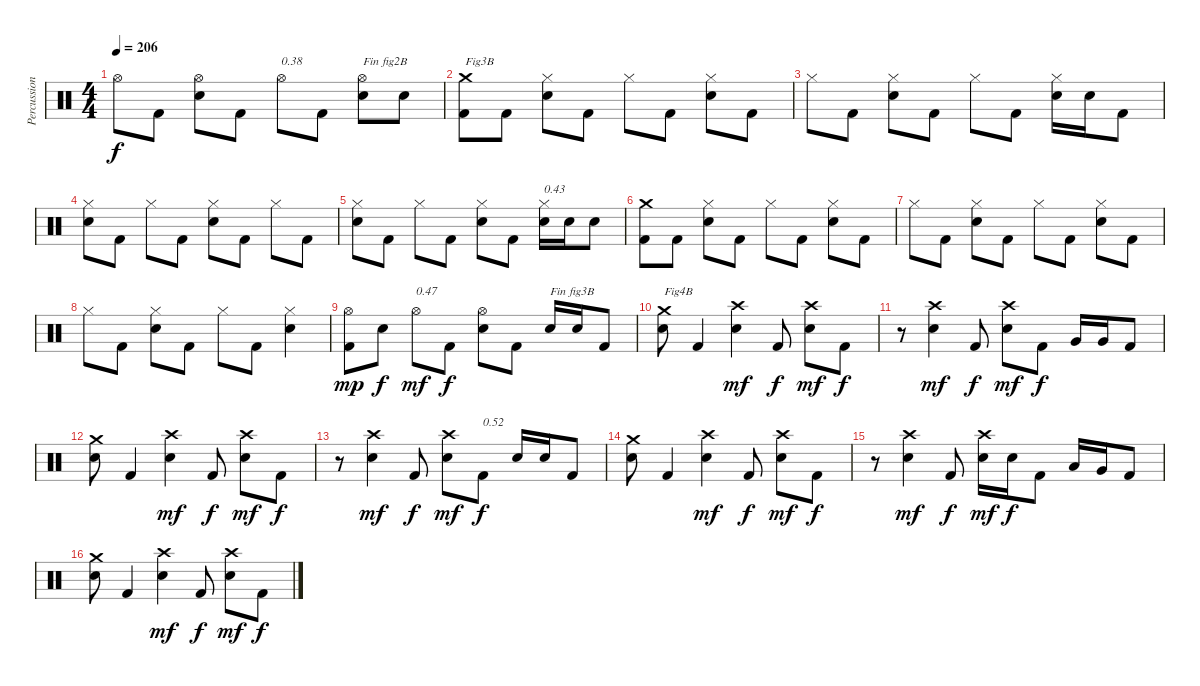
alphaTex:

\track ("Percussions" "Percussion") {instrument percussion}
\staff {score}
\articulation defaults
\ts (4 4)
\tempo 206
\clef neutral
\ks c "Hi-Hat (open)".8{dy f} "Kick (hit) 2".8
("Electric Snare (hit)" "Hi-Hat (open)").8 "Kick (hit) 2".8 "Hi-Hat (open)".8{txt "0.38"} "Kick (hit) 2".8 ("Electric Snare (hit)" "Hi-Hat (open)").8{txt "Fin fig2B"} "Electric Snare (hit)".8 |
("Kick (hit) 2" "Crash medium (hit)").8{txt "Fig3B"} "Kick (hit) 2".8 ("Electric Snare (hit)" "Hi-Hat (closed)").8 "Kick (hit) 2".8 "Hi-Hat (closed)".8 "Kick (hit) 2".8 ("Electric Snare (hit)" "Hi-Hat (closed)").8 "Kick (hit) 2".8 |
"Hi-Hat (closed)".8 "Kick (hit) 2".8 ("Electric Snare (hit)" "Hi-Hat (closed)").8 "Kick (hit) 2".8 "Hi-Hat (closed)".8 "Kick (hit) 2".8 ("Electric Snare (hit)" "Hi-Hat (closed)").16 "Electric Snare (hit)".16 "Kick (hit) 2".8 |
("Electric Snare (hit)" "Hi-Hat (closed)").8 "Kick (hit) 2".8 "Hi-Hat (closed)".8 "Kick (hit) 2".8 ("Electric Snare (hit)" "Hi-Hat (closed)").8 "Kick (hit) 2".8 "Hi-Hat (closed)".8 "Kick (hit) 2".8 |
("Electric Snare (hit)" "Hi-Hat (closed)").8 "Kick (hit) 2".8 "Hi-Hat (closed)".8 "Kick (hit) 2".8 ("Electric Snare (hit)" "Hi-Hat (closed)").8 "Kick (hit) 2".8 ("Electric Snare (hit)" "Hi-Hat (closed)").16{txt "0.43"} "Electric Snare (hit)".16 "Electric Snare (hit)".8 |
("Kick (hit) 2" "Crash medium (hit)").8 "Kick (hit) 2".8 ("Electric Snare (hit)" "Hi-Hat (closed)").8 "Kick (hit) 2".8 "Hi-Hat (closed)".8 "Kick (hit) 2".8 ("Electric Snare (hit)" "Hi-Hat (closed)").8 "Kick (hit) 2".8 |
"Hi-Hat (closed)".8 "Kick (hit) 2".8 ("Electric Snare (hit)" "Hi-Hat (closed)").8 "Kick (hit) 2".8 "Hi-Hat (closed)".8 "Kick (hit) 2".8 ("Electric Snare (hit)" "Hi-Hat (closed)").8 "Kick (hit) 2".8 |
"Hi-Hat (closed)".8 "Kick (hit) 2".8 ("Electric Snare (hit)" "Hi-Hat (closed)").8 "Kick (hit) 2".8 "Hi-Hat (closed)".8 "Kick (hit) 2".8 ("Electric Snare (hit)" "Hi-Hat (closed)").4 |
("Kick (hit) 2" "Hi-Hat (open)").8{dy mp} "Electric Snare (hit)".8{dy f} "Hi-Hat (open)".8{txt "0.47" dy mf} "Kick (hit) 2".8{dy f} ("Electric Snare (hit)" "Hi-Hat (open)").8 "Kick (hit) 2".8 "Electric Snare (hit)".16{txt "Fin fig3B"} "Electric Snare (hit)".16 "Kick (hit) 2".8 |
("Electric Snare (hit)" "Crash medium (hit)").8{txt "Fig4B"} "Kick (hit) 2".4 ("Electric Snare (hit)" "Crash high (hit)").4{dy mf} "Kick (hit) 2".8{dy f} ("Electric Snare (hit)" "Crash high (hit)").8{dy mf} "Kick (hit) 2".8{dy f} |
r.8 ("Electric Snare (hit)" "Crash high (hit)").4{dy mf} "Kick (hit) 2".8{dy f} ("Electric Snare (hit)" "Crash high (hit)").8{dy mf} "Kick (hit) 2".8{dy f} "Very Low Tom (hit)".16 "Very Low Tom (hit)".16 "Kick (hit) 2".8 |
("Electric Snare (hit)" "Crash medium (hit)").8 "Kick (hit) 2".4 ("Electric Snare (hit)" "Crash high (hit)").4{dy mf} "Kick (hit) 2".8{dy f} ("Electric Snare (hit)" "Crash high (hit)").8{dy mf} "Kick (hit) 2".8{dy f} |
r.8 ("Electric Snare (hit)" "Crash high (hit)").4{dy mf} "Kick (hit) 2".8{dy f} ("Electric Snare (hit)" "Crash high (hit)").8{dy mf} "Kick (hit) 2".8{txt "0.52" dy f} "Electric Snare (hit)".16 "Electric Snare (hit)".16 "Kick (hit) 2".8 |
("Electric Snare (hit)" "Crash medium (hit)").8 "Kick (hit) 2".4 ("Electric Snare (hit)" "Crash high (hit)").4{dy mf} "Kick (hit) 2".8{dy f} ("Electric Snare (hit)" "Crash high (hit)").8{dy mf} "Kick (hit) 2".8{dy f} |
r.8 ("Electric Snare (hit)" "Crash high (hit)").4{dy mf} "Kick (hit) 2".8{dy f} ("Electric Snare (hit)" "Crash high (hit)").16{dy mf} "Electric Snare (hit)".16{dy f} "Kick (hit) 2".8 "Low Tom (hit)".16 "Very Low Tom (hit)".16 "Kick (hit) 2".8 |
("Electric Snare (hit)" "Crash medium (hit)").8 "Kick (hit) 2".4 ("Electric Snare (hit)" "Crash high (hit)").4{dy mf} "Kick (hit) 2".8{dy f} ("Electric Snare (hit)" "Crash high (hit)").8{dy mf} "Kick (hit) 2".8{dy f}
